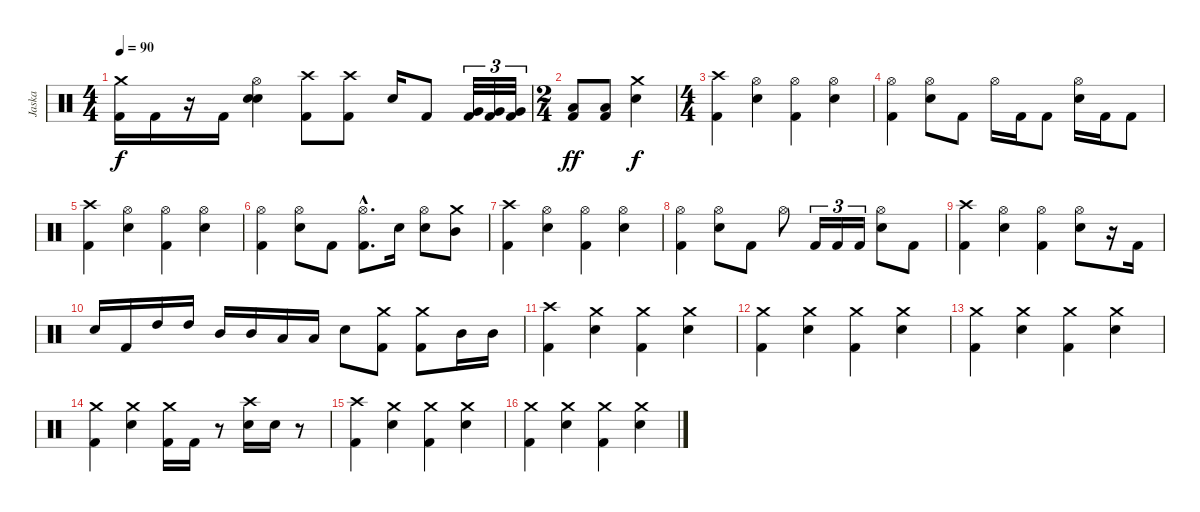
\track ("Jaska" "Jaska") {instrument percussion}
\staff {score}
\articulation defaults
\ts (4 4)
\tempo 90
\clef neutral
\ks c
("Crash medium (hit)" "Kick (hit) 2").16{dy f} "Kick (hit) 2".16 r.16 "Kick (hit) 2".16 ("Hi-Hat (open)" "Snare (hit) 2" "Snare (hit) 2").4 ("Crash high (hit)" "Kick (hit) 2").8 ("Crash high (hit)" "Kick (hit) 2").8 "Snare (hit) 2".16 "Kick (hit) 2".8 ("Very Low Tom (hit)" "Kick (hit) 2").32{tu (3 2)} ("Very Low Tom (hit)" "Kick (hit) 2").32{tu (3 2)} ("Very Low Tom (hit)" "Kick (hit) 2").32{tu (3 2)} |
\ts (2 4)
("Low Floor Tom (hit)" "Kick (hit) 2").8{dy ff} ("Low Floor Tom (hit)" "Kick (hit) 2").8 ("Crash medium (hit)" "Snare (hit) 2").4{dy f} |
\ts (4 4)
("Crash high (hit)" "Kick (hit) 2").4 ("Hi-Hat (open)" "Snare (hit) 2").4 ("Hi-Hat (open)" "Kick (hit) 2").4 ("Hi-Hat (open)" "Snare (hit) 2").4 |
("Hi-Hat (open)" "Kick (hit) 2").4 ("Hi-Hat (open)" "Snare (hit) 2").8 "Kick (hit) 2".8 "Hi-Hat (open)".16 "Kick (hit) 2".16 "Kick (hit) 2".8 ("Hi-Hat (open)" "Snare (hit) 2").16 "Kick (hit) 2".16 "Kick (hit) 2".8 |
("Crash high (hit)" "Kick (hit) 2").4 ("Hi-Hat (open)" "Snare (hit) 2").4 ("Hi-Hat (open)" "Kick (hit) 2").4 ("Hi-Hat (open)" "Snare (hit) 2").4 |
("Hi-Hat (open)" "Kick (hit) 2").4 ("Hi-Hat (open)" "Snare (hit) 2").8 "Kick (hit) 2".8 ("Hi-Hat (open)"{hac} "Kick (hit) 2"{hac}).8{d} "Snare (hit) 2".16 ("Hi-Hat (open)" "Snare (hit) 2").8 ("Crash medium (hit)" "Mid Tom (hit)").8 |
("Crash high (hit)" "Kick (hit) 2").4 ("Hi-Hat (open)" "Snare (hit) 2").4 ("Hi-Hat (open)" "Kick (hit) 2").4 ("Hi-Hat (open)" "Snare (hit) 2").4 |
("Hi-Hat (open)" "Kick (hit) 2").4 ("Hi-Hat (open)" "Snare (hit) 2").8 "Kick (hit) 2".8 "Hi-Hat (open)".8 "Kick (hit) 2".16{tu (3 2)} "Kick (hit) 2".16{tu (3 2)} "Kick (hit) 2".16{tu (3 2)} ("Hi-Hat (open)" "Snare (hit) 2").8 "Kick (hit) 2".8 |
("Crash high (hit)" "Kick (hit) 2").4 ("Hi-Hat (open)" "Snare (hit) 2").4 ("Hi-Hat (open)" "Kick (hit) 2").4 ("Hi-Hat (open)" "Snare (hit) 2").8 r.16 "Kick (hit) 2".16 |
"Snare (hit) 2".16 "Kick (hit) 2".16 "High Tom (hit)".16 "High Tom (hit)".16 "Mid Tom (hit)".16 "Mid Tom (hit)".16 "Low Tom (hit)".16 "Low Tom (hit)".16 "Snare (hit) 2".8 ("Crash medium (hit)" "Kick (hit) 2").8 ("Crash medium (hit)" "Kick (hit) 2").8 "Mid Tom (hit)".16 "Mid Tom (hit)".16 |
("Crash high (hit)" "Kick (hit) 2").4 ("Crash medium (hit)" "Snare (hit) 2").4 ("Crash medium (hit)" "Kick (hit) 2").4 ("Crash medium (hit)" "Snare (hit) 2").4 |
("Crash medium (hit)" "Kick (hit) 2").4 ("Crash medium (hit)" "Snare (hit) 2").4 ("Crash medium (hit)" "Kick (hit) 2").4 ("Crash medium (hit)" "Snare (hit) 2").4 |
("Crash medium (hit)" "Kick (hit) 2").4 ("Crash medium (hit)" "Snare (hit) 2").4 ("Crash medium (hit)" "Kick (hit) 2").4 ("Crash medium (hit)" "Snare (hit) 2").4 |
("Crash medium (hit)" "Kick (hit) 2").4 ("Crash medium (hit)" "Snare (hit) 2").4 ("Crash medium (hit)" "Kick (hit) 2").16 "Kick (hit) 2".16 r.8 ("Crash high (hit)" "Snare (hit) 2").16 "Snare (hit) 2".16 r.8 |
("Crash high (hit)" "Kick (hit) 2").4 ("Crash medium (hit)" "Snare (hit) 2").4 ("Crash medium (hit)" "Kick (hit) 2").4 ("Crash medium (hit)" "Snare (hit) 2").4 |
("Crash medium (hit)" "Kick (hit) 2").4 ("Crash medium (hit)" "Snare (hit) 2").4 ("Crash medium (hit)" "Kick (hit) 2").4 ("Crash medium (hit)" "Snare (hit) 2").4
